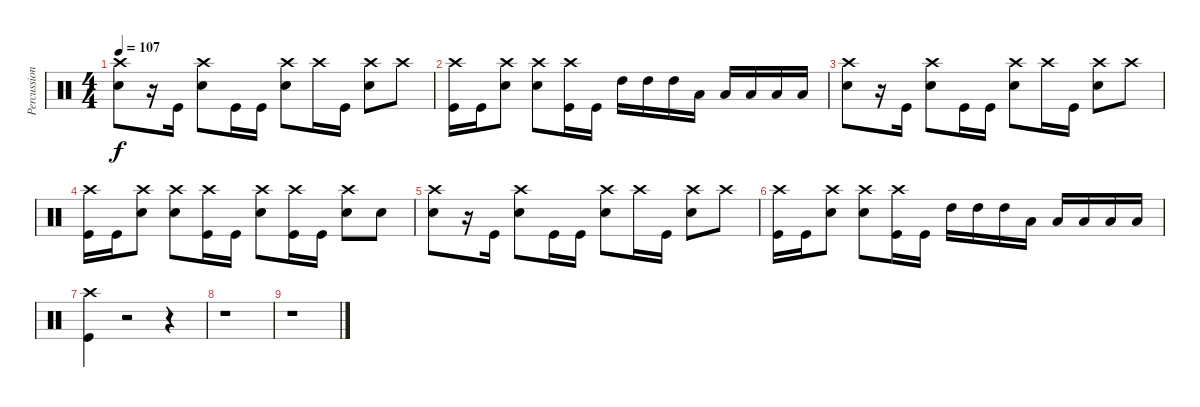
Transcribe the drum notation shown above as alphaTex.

\track ("Percussion" "Percussion") {instrument percussion}
\staff {score}
\articulation defaults
\ts (4 4)
\tempo 107
\clef neutral
\ks c
("Electric Snare (hit)" "Crash high (hit)").8{dy f} r.16 "Kick (hit)".16 ("Electric Snare (hit)" "Crash high (hit)").8 "Kick (hit)".16 "Kick (hit)".16 ("Electric Snare (hit)" "Crash high (hit)").8 "Crash high (hit)".16 "Kick (hit)".16 ("Electric Snare (hit)" "Crash high (hit)").8 "Crash high (hit)".8 |
("Kick (hit)" "Crash high (hit)").16 "Kick (hit)".16 ("Electric Snare (hit)" "Crash high (hit)").8 ("Electric Snare (hit)" "Crash high (hit)").8 ("Kick (hit)" "Crash high (hit)").16 "Kick (hit)".16 "High Tom (hit)".16 "High Tom (hit)".16 "High Tom (hit)".16 "Low Tom (hit)".16 "Low Tom (hit)".16 "Low Tom (hit)".16 "Low Tom (hit)".16 "Low Tom (hit)".16 |
("Electric Snare (hit)" "Crash high (hit)").8 r.16 "Kick (hit)".16 ("Electric Snare (hit)" "Crash high (hit)").8 "Kick (hit)".16 "Kick (hit)".16 ("Electric Snare (hit)" "Crash high (hit)").8 "Crash high (hit)".16 "Kick (hit)".16 ("Electric Snare (hit)" "Crash high (hit)").8 "Crash high (hit)".8 |
("Kick (hit)" "Crash high (hit)").16 "Kick (hit)".16 ("Electric Snare (hit)" "Crash high (hit)").8 ("Electric Snare (hit)" "Crash high (hit)").8 ("Kick (hit)" "Crash high (hit)").16 "Kick (hit)".16 ("Electric Snare (hit)" "Crash high (hit)").8 ("Kick (hit)" "Crash high (hit)").16 "Kick (hit)".16 ("Electric Snare (hit)" "Crash high (hit)").8 "Electric Snare (hit)".8 |
("Electric Snare (hit)" "Crash high (hit)").8 r.16 "Kick (hit)".16 ("Electric Snare (hit)" "Crash high (hit)").8 "Kick (hit)".16 "Kick (hit)".16 ("Electric Snare (hit)" "Crash high (hit)").8 "Crash high (hit)".16 "Kick (hit)".16 ("Electric Snare (hit)" "Crash high (hit)").8 "Crash high (hit)".8 |
("Kick (hit)" "Crash high (hit)").16 "Kick (hit)".16 ("Electric Snare (hit)" "Crash high (hit)").8 ("Electric Snare (hit)" "Crash high (hit)").8 ("Kick (hit)" "Crash high (hit)").16 "Kick (hit)".16 "High Tom (hit)".16 "High Tom (hit)".16 "High Tom (hit)".16 "Low Tom (hit)".16 "Low Tom (hit)".16 "Low Tom (hit)".16 "Low Tom (hit)".16 "Low Tom (hit)".16 |
("Kick (hit)" "Crash high (hit)").4 r.2 r.4 |
r.1 |
r.1
